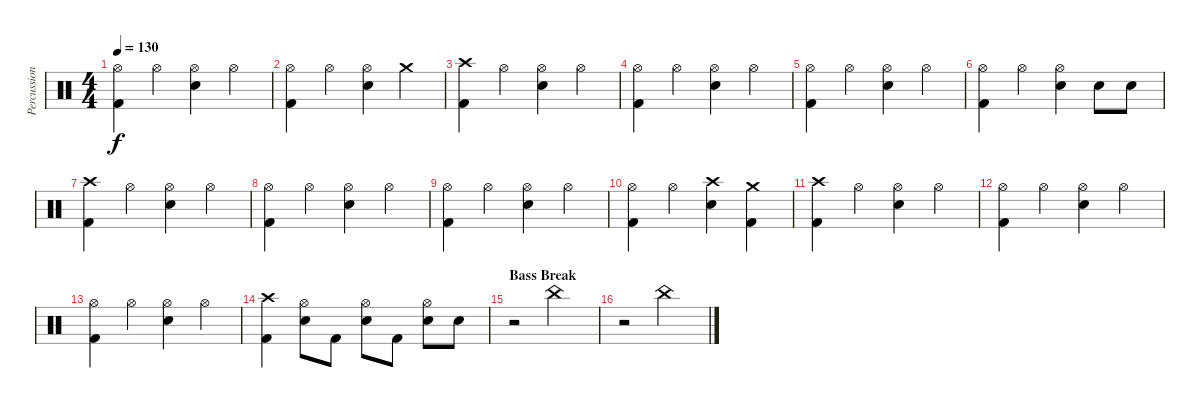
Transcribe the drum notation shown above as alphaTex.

\track ("Percussion" "Percussion") {instrument percussion}
\staff {score}
\articulation defaults
\ts (4 4)
\tempo 130
\clef neutral
\ks c
("Hi-Hat (open)" "Kick (hit) 2").4{dy f} "Hi-Hat (open)".4 ("Hi-Hat (open)" "Snare (hit) 2").4 "Hi-Hat (open)".4 |
("Hi-Hat (open)" "Kick (hit) 2").4 "Hi-Hat (open)".4 ("Hi-Hat (open)" "Snare (hit) 2").4 "Crash medium (hit)".4 |
("Crash high (hit)" "Kick (hit) 2").4 "Hi-Hat (open)".4 ("Hi-Hat (open)" "Snare (hit) 2").4 "Hi-Hat (open)".4 |
("Hi-Hat (open)" "Kick (hit) 2").4 "Hi-Hat (open)".4 ("Hi-Hat (open)" "Snare (hit) 2").4 "Hi-Hat (open)".4 |
("Hi-Hat (open)" "Kick (hit) 2").4 "Hi-Hat (open)".4 ("Hi-Hat (open)" "Snare (hit) 2").4 "Hi-Hat (open)".4 |
("Hi-Hat (open)" "Kick (hit) 2").4 "Hi-Hat (open)".4 ("Hi-Hat (open)" "Snare (hit) 2").4 "Snare (hit) 2".8 "Snare (hit) 2".8 |
("Crash high (hit)" "Kick (hit) 2").4 "Hi-Hat (open)".4 ("Hi-Hat (open)" "Snare (hit) 2").4 "Hi-Hat (open)".4 |
("Hi-Hat (open)" "Kick (hit) 2").4 "Hi-Hat (open)".4 ("Hi-Hat (open)" "Snare (hit) 2").4 "Hi-Hat (open)".4 |
("Hi-Hat (open)" "Kick (hit) 2").4 "Hi-Hat (open)".4 ("Hi-Hat (open)" "Snare (hit) 2").4 "Hi-Hat (open)".4 |
("Hi-Hat (open)" "Kick (hit) 2").4 "Hi-Hat (open)".4 ("Crash high (hit)" "Snare (hit) 2").4 ("Crash medium (hit)" "Kick (hit) 2").4 |
("Crash high (hit)" "Kick (hit) 2").4 "Hi-Hat (open)".4 ("Hi-Hat (open)" "Snare (hit) 2").4 "Hi-Hat (open)".4 |
("Hi-Hat (open)" "Kick (hit) 2").4 "Hi-Hat (open)".4 ("Hi-Hat (open)" "Snare (hit) 2").4 "Hi-Hat (open)".4 |
("Hi-Hat (open)" "Kick (hit) 2").4 "Hi-Hat (open)".4 ("Hi-Hat (open)" "Snare (hit) 2").4 "Hi-Hat (open)".4 |
("Crash high (hit)" "Kick (hit) 2").4 ("Hi-Hat (open)" "Snare (hit) 2").8 "Kick (hit) 2".8 ("Hi-Hat (open)" "Snare (hit) 2").8 "Kick (hit) 2".8 ("Hi-Hat (open)" "Snare (hit) 2").8 "Snare (hit) 2".8 |
\section ("" "Bass Break")
r.2 "China (hit)".2 |
r.2 "China (hit)".2
